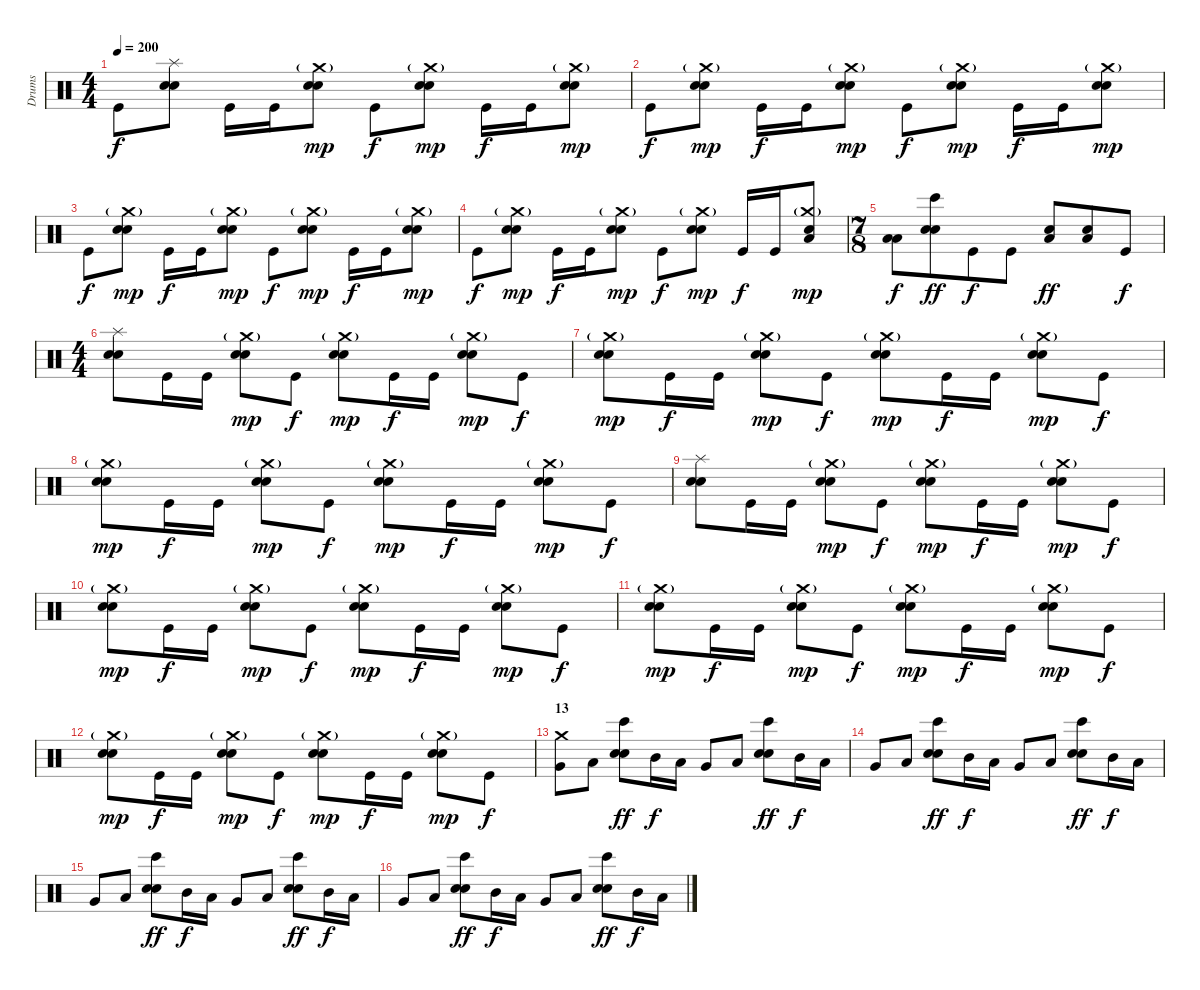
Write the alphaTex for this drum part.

\track ("Drums" "Drums") {instrument percussion}
\staff {score}
\articulation defaults
\ts (4 4)
\tempo 200
\clef neutral
\ks c "Kick (hit)".8{dy f}
("Electric Snare (hit)" "Electric Snare (hit)" "Splash (hit)").8 "Kick (hit)".16 "Kick (hit)".16 ("Electric Snare (hit)" "Electric Snare (hit)" "Crash medium (hit)"{g}).8{dy mp} "Kick (hit)".8{dy f} ("Electric Snare (hit)" "Electric Snare (hit)" "Crash medium (hit)"{g}).8{dy mp} "Kick (hit)".16{dy f} "Kick (hit)".16 ("Electric Snare (hit)" "Electric Snare (hit)" "Crash medium (hit)"{g}).8{dy mp} |
"Kick (hit)".8{dy f} ("Electric Snare (hit)" "Electric Snare (hit)" "Crash medium (hit)"{g}).8{dy mp} "Kick (hit)".16{dy f} "Kick (hit)".16 ("Electric Snare (hit)" "Electric Snare (hit)" "Crash medium (hit)"{g}).8{dy mp} "Kick (hit)".8{dy f} ("Electric Snare (hit)" "Electric Snare (hit)" "Crash medium (hit)"{g}).8{dy mp} "Kick (hit)".16{dy f} "Kick (hit)".16 ("Electric Snare (hit)" "Electric Snare (hit)" "Crash medium (hit)"{g}).8{dy mp} |
"Kick (hit)".8{dy f} ("Electric Snare (hit)" "Electric Snare (hit)" "Crash medium (hit)"{g}).8{dy mp} "Kick (hit)".16{dy f} "Kick (hit)".16 ("Electric Snare (hit)" "Electric Snare (hit)" "Crash medium (hit)"{g}).8{dy mp} "Kick (hit)".8{dy f} ("Electric Snare (hit)" "Electric Snare (hit)" "Crash medium (hit)"{g}).8{dy mp} "Kick (hit)".16{dy f} "Kick (hit)".16 ("Electric Snare (hit)" "Electric Snare (hit)" "Crash medium (hit)"{g}).8{dy mp} |
"Kick (hit)".8{dy f} ("Electric Snare (hit)" "Electric Snare (hit)" "Crash medium (hit)"{g}).8{dy mp} "Kick (hit)".16{dy f} "Kick (hit)".16 ("Electric Snare (hit)" "Electric Snare (hit)" "Crash medium (hit)"{g}).8{dy mp} "Kick (hit)".8{dy f} ("Electric Snare (hit)" "Electric Snare (hit)" "Crash medium (hit)"{g}).8{dy mp} "Kick (hit)".16{dy f} "Kick (hit)".16 ("Electric Snare (hit)" "Low Floor Tom (hit)" "Crash medium (hit)"{g}).8{dy mp} |
\ts (7 8)
("Low Floor Tom (hit)" "Low Floor Tom (hit)").8{dy f} ("Electric Snare (hit)" "Electric Snare (hit)" "Bongo High (hit)").8{dy ff} "Kick (hit)".8{dy f} "Kick (hit)".8 ("Electric Snare (hit)" "Low Floor Tom (hit)").8{dy ff} ("Electric Snare (hit)" "Low Floor Tom (hit)").8 "Kick (hit)".8{dy f} |
\ts (4 4)
("Electric Snare (hit)" "Electric Snare (hit)" "Splash (hit)").8 "Kick (hit)".16 "Kick (hit)".16 ("Electric Snare (hit)" "Electric Snare (hit)" "Crash medium (hit)"{g}).8{dy mp} "Kick (hit)".8{dy f} ("Electric Snare (hit)" "Electric Snare (hit)" "Crash medium (hit)"{g}).8{dy mp} "Kick (hit)".16{dy f} "Kick (hit)".16 ("Electric Snare (hit)" "Electric Snare (hit)" "Crash medium (hit)"{g}).8{dy mp} "Kick (hit)".8{dy f} |
("Electric Snare (hit)" "Electric Snare (hit)" "Crash medium (hit)"{g}).8{dy mp} "Kick (hit)".16{dy f} "Kick (hit)".16 ("Electric Snare (hit)" "Electric Snare (hit)" "Crash medium (hit)"{g}).8{dy mp} "Kick (hit)".8{dy f} ("Electric Snare (hit)" "Electric Snare (hit)" "Crash medium (hit)"{g}).8{dy mp} "Kick (hit)".16{dy f} "Kick (hit)".16 ("Electric Snare (hit)" "Electric Snare (hit)" "Crash medium (hit)"{g}).8{dy mp} "Kick (hit)".8{dy f} |
("Electric Snare (hit)" "Electric Snare (hit)" "Crash medium (hit)"{g}).8{dy mp} "Kick (hit)".16{dy f} "Kick (hit)".16 ("Electric Snare (hit)" "Electric Snare (hit)" "Crash medium (hit)"{g}).8{dy mp} "Kick (hit)".8{dy f} ("Electric Snare (hit)" "Electric Snare (hit)" "Crash medium (hit)"{g}).8{dy mp} "Kick (hit)".16{dy f} "Kick (hit)".16 ("Electric Snare (hit)" "Electric Snare (hit)" "Crash medium (hit)"{g}).8{dy mp} "Kick (hit)".8{dy f} |
("Electric Snare (hit)" "Electric Snare (hit)" "Splash (hit)").8 "Kick (hit)".16 "Kick (hit)".16 ("Electric Snare (hit)" "Electric Snare (hit)" "Crash medium (hit)"{g}).8{dy mp} "Kick (hit)".8{dy f} ("Electric Snare (hit)" "Electric Snare (hit)" "Crash medium (hit)"{g}).8{dy mp} "Kick (hit)".16{dy f} "Kick (hit)".16 ("Electric Snare (hit)" "Electric Snare (hit)" "Crash medium (hit)"{g}).8{dy mp} "Kick (hit)".8{dy f} |
("Electric Snare (hit)" "Electric Snare (hit)" "Crash medium (hit)"{g}).8{dy mp} "Kick (hit)".16{dy f} "Kick (hit)".16 ("Electric Snare (hit)" "Electric Snare (hit)" "Crash medium (hit)"{g}).8{dy mp} "Kick (hit)".8{dy f} ("Electric Snare (hit)" "Electric Snare (hit)" "Crash medium (hit)"{g}).8{dy mp} "Kick (hit)".16{dy f} "Kick (hit)".16 ("Electric Snare (hit)" "Electric Snare (hit)" "Crash medium (hit)"{g}).8{dy mp} "Kick (hit)".8{dy f} |
("Electric Snare (hit)" "Electric Snare (hit)" "Crash medium (hit)"{g}).8{dy mp} "Kick (hit)".16{dy f} "Kick (hit)".16 ("Electric Snare (hit)" "Electric Snare (hit)" "Crash medium (hit)"{g}).8{dy mp} "Kick (hit)".8{dy f} ("Electric Snare (hit)" "Electric Snare (hit)" "Crash medium (hit)"{g}).8{dy mp} "Kick (hit)".16{dy f} "Kick (hit)".16 ("Electric Snare (hit)" "Electric Snare (hit)" "Crash medium (hit)"{g}).8{dy mp} "Kick (hit)".8{dy f} |
("Electric Snare (hit)" "Electric Snare (hit)" "Crash medium (hit)"{g}).8{dy mp} "Kick (hit)".16{dy f} "Kick (hit)".16 ("Electric Snare (hit)" "Electric Snare (hit)" "Crash medium (hit)"{g}).8{dy mp} "Kick (hit)".8{dy f} ("Electric Snare (hit)" "Electric Snare (hit)" "Crash medium (hit)"{g}).8{dy mp} "Kick (hit)".16{dy f} "Kick (hit)".16 ("Electric Snare (hit)" "Electric Snare (hit)" "Crash medium (hit)"{g}).8{dy mp} "Kick (hit)".8{dy f} |
\section ("" "13")
("Very Low Tom (hit)" "Crash medium (hit)").8 "Low Floor Tom (hit)".8 ("Electric Snare (hit)" "Electric Snare (hit)" "Bongo High (hit)").8{dy ff} "Mid Tom (hit)".16{dy f} "Low Tom (hit)".16 "Very Low Tom (hit)".8 "Low Floor Tom (hit)".8 ("Electric Snare (hit)" "Electric Snare (hit)" "Bongo High (hit)").8{dy ff} "Mid Tom (hit)".16{dy f} "Low Tom (hit)".16 |
"Very Low Tom (hit)".8 "Low Floor Tom (hit)".8 ("Electric Snare (hit)" "Electric Snare (hit)" "Bongo High (hit)").8{dy ff} "Mid Tom (hit)".16{dy f} "Low Tom (hit)".16 "Very Low Tom (hit)".8 "Low Floor Tom (hit)".8 ("Electric Snare (hit)" "Electric Snare (hit)" "Bongo High (hit)").8{dy ff} "Mid Tom (hit)".16{dy f} "Low Tom (hit)".16 |
"Very Low Tom (hit)".8 "Low Floor Tom (hit)".8 ("Electric Snare (hit)" "Electric Snare (hit)" "Bongo High (hit)").8{dy ff} "Mid Tom (hit)".16{dy f} "Low Tom (hit)".16 "Very Low Tom (hit)".8 "Low Floor Tom (hit)".8 ("Electric Snare (hit)" "Electric Snare (hit)" "Bongo High (hit)").8{dy ff} "Mid Tom (hit)".16{dy f} "Low Tom (hit)".16 |
"Very Low Tom (hit)".8 "Low Floor Tom (hit)".8 ("Electric Snare (hit)" "Electric Snare (hit)" "Bongo High (hit)").8{dy ff} "Mid Tom (hit)".16{dy f} "Low Tom (hit)".16 "Very Low Tom (hit)".8 "Low Floor Tom (hit)".8 ("Electric Snare (hit)" "Electric Snare (hit)" "Bongo High (hit)").8{dy ff} "Mid Tom (hit)".16{dy f} "Low Tom (hit)".16
